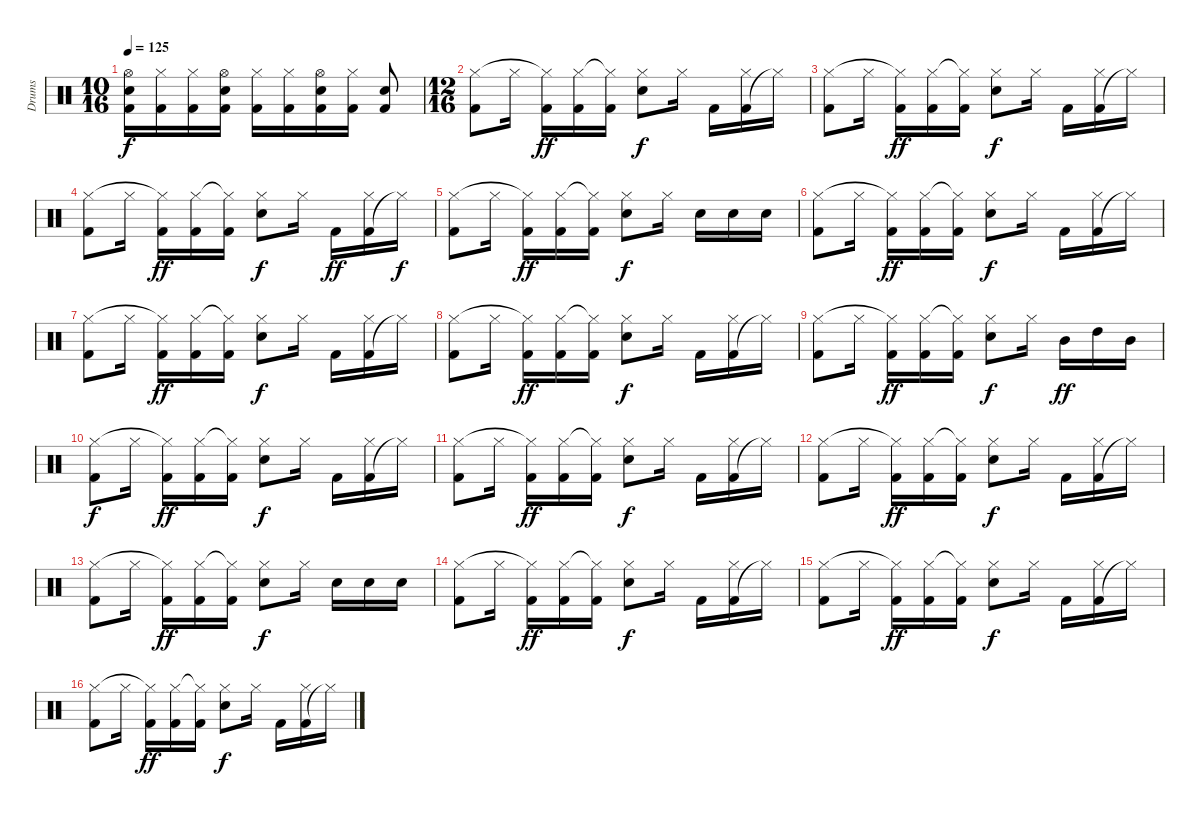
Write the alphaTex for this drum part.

\track ("Drums" "Drums") {instrument percussion}
\staff {score}
\articulation defaults
\ts (10 16)
\tempo 125
\clef neutral
\ks c
("Kick (hit) 2" "Electric Snare (hit)" "Hi-Hat (open)").16{dy f} ("Kick (hit) 2" "Hi-Hat (closed)").16 ("Kick (hit) 2" "Hi-Hat (closed)").16 ("Kick (hit) 2" "Electric Snare (hit)" "Hi-Hat (open)").16 ("Kick (hit) 2" "Hi-Hat (closed)").16 ("Kick (hit) 2" "Hi-Hat (closed)").16 ("Kick (hit) 2" "Electric Snare (hit)" "Hi-Hat (open)").16 ("Kick (hit) 2" "Hi-Hat (closed)").16 ("Kick (hit) 2" "Electric Snare (hit)").8 |
\ts (12 16)
("Kick (hit) 2" "Hi-Hat (closed)").8 "Hi-Hat (closed)".16 ("Kick (hit) 2" "Hi-Hat (closed)"{t}).16{dy ff} ("Kick (hit) 2" "Hi-Hat (closed)").16 ("Kick (hit) 2" "Hi-Hat (closed)"{t}).16 ("Electric Snare (hit)" "Hi-Hat (closed)").8{dy f} "Hi-Hat (closed)".16 "Kick (hit) 2".16 ("Kick (hit) 2" "Hi-Hat (closed)").16 "Hi-Hat (closed)"{t}.16 |
("Kick (hit) 2" "Hi-Hat (closed)").8 "Hi-Hat (closed)".16 ("Kick (hit) 2" "Hi-Hat (closed)"{t}).16{dy ff} ("Kick (hit) 2" "Hi-Hat (closed)").16 ("Kick (hit) 2" "Hi-Hat (closed)"{t}).16 ("Electric Snare (hit)" "Hi-Hat (closed)").8{dy f} "Hi-Hat (closed)".16 "Kick (hit) 2".16 ("Kick (hit) 2" "Hi-Hat (closed)").16 "Hi-Hat (closed)"{t}.16 |
("Kick (hit) 2" "Hi-Hat (closed)").8 "Hi-Hat (closed)".16 ("Kick (hit) 2" "Hi-Hat (closed)"{t}).16{dy ff} ("Kick (hit) 2" "Hi-Hat (closed)").16 ("Kick (hit) 2" "Hi-Hat (closed)"{t}).16 ("Electric Snare (hit)" "Hi-Hat (closed)").8{dy f} "Hi-Hat (closed)".16 "Kick (hit) 2".16{dy ff} ("Kick (hit) 2" "Hi-Hat (closed)").16 "Hi-Hat (closed)"{t}.16{dy f} |
("Kick (hit) 2" "Hi-Hat (closed)").8 "Hi-Hat (closed)".16 ("Kick (hit) 2" "Hi-Hat (closed)"{t}).16{dy ff} ("Kick (hit) 2" "Hi-Hat (closed)").16 ("Kick (hit) 2" "Hi-Hat (closed)"{t}).16 ("Electric Snare (hit)" "Hi-Hat (closed)").8{dy f} "Hi-Hat (closed)".16 "Electric Snare (hit)".16 "Electric Snare (hit)".16 "Electric Snare (hit)".16 |
("Kick (hit) 2" "Hi-Hat (closed)").8 "Hi-Hat (closed)".16 ("Kick (hit) 2" "Hi-Hat (closed)"{t}).16{dy ff} ("Kick (hit) 2" "Hi-Hat (closed)").16 ("Kick (hit) 2" "Hi-Hat (closed)"{t}).16 ("Electric Snare (hit)" "Hi-Hat (closed)").8{dy f} "Hi-Hat (closed)".16 "Kick (hit) 2".16 ("Kick (hit) 2" "Hi-Hat (closed)").16 "Hi-Hat (closed)"{t}.16 |
("Kick (hit) 2" "Hi-Hat (closed)").8 "Hi-Hat (closed)".16 ("Kick (hit) 2" "Hi-Hat (closed)"{t}).16{dy ff} ("Kick (hit) 2" "Hi-Hat (closed)").16 ("Kick (hit) 2" "Hi-Hat (closed)"{t}).16 ("Electric Snare (hit)" "Hi-Hat (closed)").8{dy f} "Hi-Hat (closed)".16 "Kick (hit) 2".16 ("Kick (hit) 2" "Hi-Hat (closed)").16 "Hi-Hat (closed)"{t}.16 |
("Kick (hit) 2" "Hi-Hat (closed)").8 "Hi-Hat (closed)".16 ("Kick (hit) 2" "Hi-Hat (closed)"{t}).16{dy ff} ("Kick (hit) 2" "Hi-Hat (closed)").16 ("Kick (hit) 2" "Hi-Hat (closed)"{t}).16 ("Electric Snare (hit)" "Hi-Hat (closed)").8{dy f} "Hi-Hat (closed)".16 "Kick (hit) 2".16 ("Kick (hit) 2" "Hi-Hat (closed)").16 "Hi-Hat (closed)"{t}.16 |
("Kick (hit) 2" "Hi-Hat (closed)").8 "Hi-Hat (closed)".16 ("Kick (hit) 2" "Hi-Hat (closed)"{t}).16{dy ff} ("Kick (hit) 2" "Hi-Hat (closed)").16 ("Kick (hit) 2" "Hi-Hat (closed)"{t}).16 ("Electric Snare (hit)" "Hi-Hat (closed)").8{dy f} "Hi-Hat (closed)".16 "Mid Tom (hit)".16{dy ff} "High Tom (hit)".16 "Mid Tom (hit)".16 |
("Kick (hit) 2" "Hi-Hat (closed)").8{dy f} "Hi-Hat (closed)".16 ("Kick (hit) 2" "Hi-Hat (closed)"{t}).16{dy ff} ("Kick (hit) 2" "Hi-Hat (closed)").16 ("Kick (hit) 2" "Hi-Hat (closed)"{t}).16 ("Electric Snare (hit)" "Hi-Hat (closed)").8{dy f} "Hi-Hat (closed)".16 "Kick (hit) 2".16 ("Kick (hit) 2" "Hi-Hat (closed)").16 "Hi-Hat (closed)"{t}.16 |
("Kick (hit) 2" "Hi-Hat (closed)").8 "Hi-Hat (closed)".16 ("Kick (hit) 2" "Hi-Hat (closed)"{t}).16{dy ff} ("Kick (hit) 2" "Hi-Hat (closed)").16 ("Kick (hit) 2" "Hi-Hat (closed)"{t}).16 ("Electric Snare (hit)" "Hi-Hat (closed)").8{dy f} "Hi-Hat (closed)".16 "Kick (hit) 2".16 ("Kick (hit) 2" "Hi-Hat (closed)").16 "Hi-Hat (closed)"{t}.16 |
("Kick (hit) 2" "Hi-Hat (closed)").8 "Hi-Hat (closed)".16 ("Kick (hit) 2" "Hi-Hat (closed)"{t}).16{dy ff} ("Kick (hit) 2" "Hi-Hat (closed)").16 ("Kick (hit) 2" "Hi-Hat (closed)"{t}).16 ("Electric Snare (hit)" "Hi-Hat (closed)").8{dy f} "Hi-Hat (closed)".16 "Kick (hit) 2".16 ("Kick (hit) 2" "Hi-Hat (closed)").16 "Hi-Hat (closed)"{t}.16 |
("Kick (hit) 2" "Hi-Hat (closed)").8 "Hi-Hat (closed)".16 ("Kick (hit) 2" "Hi-Hat (closed)"{t}).16{dy ff} ("Kick (hit) 2" "Hi-Hat (closed)").16 ("Kick (hit) 2" "Hi-Hat (closed)"{t}).16 ("Electric Snare (hit)" "Hi-Hat (closed)").8{dy f} "Hi-Hat (closed)".16 "Electric Snare (hit)".16 "Electric Snare (hit)".16 "Electric Snare (hit)".16 |
("Kick (hit) 2" "Hi-Hat (closed)").8 "Hi-Hat (closed)".16 ("Kick (hit) 2" "Hi-Hat (closed)"{t}).16{dy ff} ("Kick (hit) 2" "Hi-Hat (closed)").16 ("Kick (hit) 2" "Hi-Hat (closed)"{t}).16 ("Electric Snare (hit)" "Hi-Hat (closed)").8{dy f} "Hi-Hat (closed)".16 "Kick (hit) 2".16 ("Kick (hit) 2" "Hi-Hat (closed)").16 "Hi-Hat (closed)"{t}.16 |
("Kick (hit) 2" "Hi-Hat (closed)").8 "Hi-Hat (closed)".16 ("Kick (hit) 2" "Hi-Hat (closed)"{t}).16{dy ff} ("Kick (hit) 2" "Hi-Hat (closed)").16 ("Kick (hit) 2" "Hi-Hat (closed)"{t}).16 ("Electric Snare (hit)" "Hi-Hat (closed)").8{dy f} "Hi-Hat (closed)".16 "Kick (hit) 2".16 ("Kick (hit) 2" "Hi-Hat (closed)").16 "Hi-Hat (closed)"{t}.16 |
("Kick (hit) 2" "Hi-Hat (closed)").8 "Hi-Hat (closed)".16 ("Kick (hit) 2" "Hi-Hat (closed)"{t}).16{dy ff} ("Kick (hit) 2" "Hi-Hat (closed)").16 ("Kick (hit) 2" "Hi-Hat (closed)"{t}).16 ("Electric Snare (hit)" "Hi-Hat (closed)").8{dy f} "Hi-Hat (closed)".16 "Kick (hit) 2".16 ("Kick (hit) 2" "Hi-Hat (closed)").16 "Hi-Hat (closed)"{t}.16
